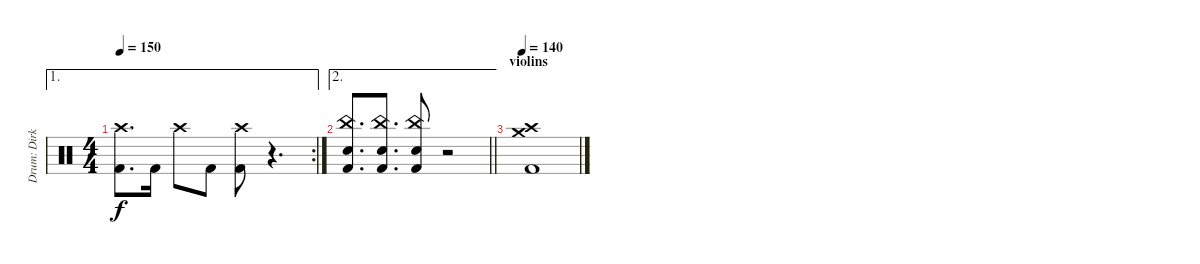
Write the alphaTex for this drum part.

\track ("Drum: Dirk" "Drum: Dirk") {instrument percussion}
\staff {score}
\articulation defaults
\ae 1
\rc 2
\ts (4 4)
\tempo 150
\clef neutral
\ks c
("Crash high (hit)" "Kick (hit) 2").8{d dy f} "Kick (hit) 2".16 "Crash high (hit)".8 "Kick (hit) 2".8 ("Crash high (hit)" "Kick (hit) 2").8 r.4{d volume 0} |
\ae 2
\barLineRight lightlight
("China (hit)" "Electric Snare (hit)" "Kick (hit) 2").8{d} ("China (hit)" "Electric Snare (hit)" "Kick (hit) 2").8{d} ("China (hit)" "Electric Snare (hit)" "Kick (hit) 2").8 r.2 |
\section ("" "violins")
\tempo 140
("Crash high (hit)" "Crash medium (hit)" "Kick (hit) 2").1
